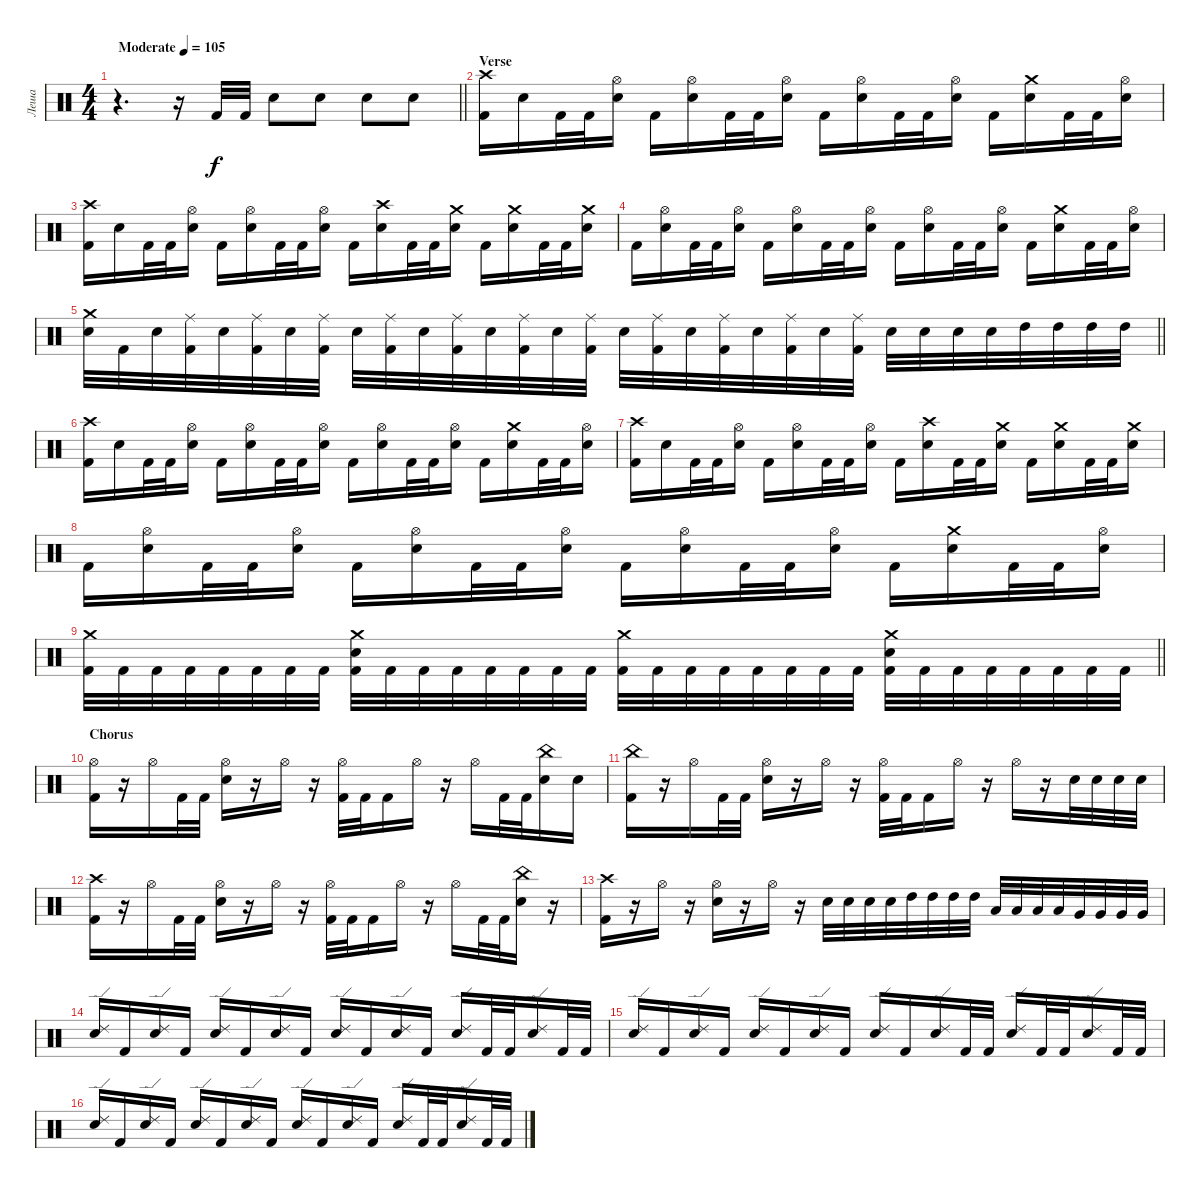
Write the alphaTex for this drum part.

\track ("Леша" "Леша") {instrument percussion}
\staff {score}
\articulation defaults
\ts (4 4)
\tempo (105 "Moderate")
\clef neutral
\barLineRight lightlight
\ks c
r.4{d dy f} r.16 "Kick (hit) 2".32 "Kick (hit) 2".32 "Electric Snare (hit)".8 "Electric Snare (hit)".8 "Electric Snare (hit)".8 "Electric Snare (hit)".8 |
\section ("" "Verse")
("Crash high (hit)" "Kick (hit) 2").16 "Electric Snare (hit)".16 "Kick (hit) 2".32 "Kick (hit) 2".32 ("Hi-Hat (open)" "Electric Snare (hit)").16 "Kick (hit) 2".16 ("Hi-Hat (open)" "Electric Snare (hit)").16 "Kick (hit) 2".32 "Kick (hit) 2".32 ("Hi-Hat (open)" "Electric Snare (hit)").16 "Kick (hit) 2".16 ("Hi-Hat (open)" "Electric Snare (hit)").16 "Kick (hit) 2".32 "Kick (hit) 2".32 ("Hi-Hat (open)" "Electric Snare (hit)").16 "Kick (hit) 2".16 ("Crash medium (hit)" "Electric Snare (hit)").16 "Kick (hit) 2".32 "Kick (hit) 2".32 ("Hi-Hat (open)" "Electric Snare (hit)").16 |
("Crash high (hit)" "Kick (hit) 2").16 "Electric Snare (hit)".16 "Kick (hit) 2".32 "Kick (hit) 2".32 ("Hi-Hat (open)" "Electric Snare (hit)").16 "Kick (hit) 2".16 ("Hi-Hat (open)" "Electric Snare (hit)").16 "Kick (hit) 2".32 "Kick (hit) 2".32 ("Hi-Hat (open)" "Electric Snare (hit)").16 "Kick (hit) 2".16 ("Crash high (hit)" "Electric Snare (hit)").16 "Kick (hit) 2".32 "Kick (hit) 2".32 ("Crash medium (hit)" "Electric Snare (hit)").16 "Kick (hit) 2".16 ("Crash medium (hit)" "Electric Snare (hit)").16 "Kick (hit) 2".32 "Kick (hit) 2".32 ("Crash medium (hit)" "Electric Snare (hit)").16 |
"Kick (hit) 2".16 ("Hi-Hat (open)" "Electric Snare (hit)").16 "Kick (hit) 2".32 "Kick (hit) 2".32 ("Hi-Hat (open)" "Electric Snare (hit)").16 "Kick (hit) 2".16 ("Hi-Hat (open)" "Electric Snare (hit)").16 "Kick (hit) 2".32 "Kick (hit) 2".32 ("Hi-Hat (open)" "Electric Snare (hit)").16 "Kick (hit) 2".16 ("Hi-Hat (open)" "Electric Snare (hit)").16 "Kick (hit) 2".32 "Kick (hit) 2".32 ("Hi-Hat (open)" "Electric Snare (hit)").16 "Kick (hit) 2".16 ("Crash medium (hit)" "Electric Snare (hit)").16 "Kick (hit) 2".32 "Kick (hit) 2".32 ("Hi-Hat (open)" "Electric Snare (hit)").16 |
\barLineRight lightlight
("Crash medium (hit)" "Electric Snare (hit)").32 "Kick (hit) 2".32 "Electric Snare (hit)".32 ("Ride (middle)" "Kick (hit) 2").32 "Electric Snare (hit)".32 ("Ride (middle)" "Kick (hit) 2").32 "Electric Snare (hit)".32 ("Ride (middle)" "Kick (hit) 2").32 "Electric Snare (hit)".32 ("Ride (middle)" "Kick (hit) 2").32 "Electric Snare (hit)".32 ("Ride (middle)" "Kick (hit) 2").32 "Electric Snare (hit)".32 ("Ride (middle)" "Kick (hit) 2").32 "Electric Snare (hit)".32 ("Ride (middle)" "Kick (hit) 2").32 "Electric Snare (hit)".32 ("Ride (middle)" "Kick (hit) 2").32 "Electric Snare (hit)".32 ("Ride (middle)" "Kick (hit) 2").32 "Electric Snare (hit)".32 ("Ride (middle)" "Kick (hit) 2").32 "Electric Snare (hit)".32 ("Ride (middle)" "Kick (hit) 2").32 "Electric Snare (hit)".32 "Electric Snare (hit)".32 "Electric Snare (hit)".32 "Electric Snare (hit)".32 "High Tom (hit)".32 "High Tom (hit)".32 "High Tom (hit)".32 "High Tom (hit)".32 |
("Crash high (hit)" "Kick (hit) 2").16 "Electric Snare (hit)".16 "Kick (hit) 2".32 "Kick (hit) 2".32 ("Hi-Hat (open)" "Electric Snare (hit)").16 "Kick (hit) 2".16 ("Hi-Hat (open)" "Electric Snare (hit)").16 "Kick (hit) 2".32 "Kick (hit) 2".32 ("Hi-Hat (open)" "Electric Snare (hit)").16 "Kick (hit) 2".16 ("Hi-Hat (open)" "Electric Snare (hit)").16 "Kick (hit) 2".32 "Kick (hit) 2".32 ("Hi-Hat (open)" "Electric Snare (hit)").16 "Kick (hit) 2".16 ("Crash medium (hit)" "Electric Snare (hit)").16 "Kick (hit) 2".32 "Kick (hit) 2".32 ("Hi-Hat (open)" "Electric Snare (hit)").16 |
("Crash high (hit)" "Kick (hit) 2").16 "Electric Snare (hit)".16 "Kick (hit) 2".32 "Kick (hit) 2".32 ("Hi-Hat (open)" "Electric Snare (hit)").16 "Kick (hit) 2".16 ("Hi-Hat (open)" "Electric Snare (hit)").16 "Kick (hit) 2".32 "Kick (hit) 2".32 ("Hi-Hat (open)" "Electric Snare (hit)").16 "Kick (hit) 2".16 ("Crash high (hit)" "Electric Snare (hit)").16 "Kick (hit) 2".32 "Kick (hit) 2".32 ("Crash medium (hit)" "Electric Snare (hit)").16 "Kick (hit) 2".16 ("Crash medium (hit)" "Electric Snare (hit)").16 "Kick (hit) 2".32 "Kick (hit) 2".32 ("Crash medium (hit)" "Electric Snare (hit)").16 |
"Kick (hit) 2".16 ("Hi-Hat (open)" "Electric Snare (hit)").16 "Kick (hit) 2".32 "Kick (hit) 2".32 ("Hi-Hat (open)" "Electric Snare (hit)").16 "Kick (hit) 2".16 ("Hi-Hat (open)" "Electric Snare (hit)").16 "Kick (hit) 2".32 "Kick (hit) 2".32 ("Hi-Hat (open)" "Electric Snare (hit)").16 "Kick (hit) 2".16 ("Hi-Hat (open)" "Electric Snare (hit)").16 "Kick (hit) 2".32 "Kick (hit) 2".32 ("Hi-Hat (open)" "Electric Snare (hit)").16 "Kick (hit) 2".16 ("Crash medium (hit)" "Electric Snare (hit)").16 "Kick (hit) 2".32 "Kick (hit) 2".32 ("Hi-Hat (open)" "Electric Snare (hit)").16 |
\barLineRight lightlight
("Crash medium (hit)" "Kick (hit) 2").32 "Kick (hit) 2".32 "Kick (hit) 2".32 "Kick (hit) 2".32 "Kick (hit) 2".32 "Kick (hit) 2".32 "Kick (hit) 2".32 "Kick (hit) 2".32 ("Crash medium (hit)" "Electric Snare (hit)" "Kick (hit) 2").32 "Kick (hit) 2".32 "Kick (hit) 2".32 "Kick (hit) 2".32 "Kick (hit) 2".32 "Kick (hit) 2".32 "Kick (hit) 2".32 "Kick (hit) 2".32 ("Crash medium (hit)" "Kick (hit) 2").32 "Kick (hit) 2".32 "Kick (hit) 2".32 "Kick (hit) 2".32 "Kick (hit) 2".32 "Kick (hit) 2".32 "Kick (hit) 2".32 "Kick (hit) 2".32 ("Crash medium (hit)" "Electric Snare (hit)" "Kick (hit) 2").32 "Kick (hit) 2".32 "Kick (hit) 2".32 "Kick (hit) 2".32 "Kick (hit) 2".32 "Kick (hit) 2".32 "Kick (hit) 2".32 "Kick (hit) 2".32 |
\section ("" "Chorus")
("Hi-Hat (open)" "Kick (hit) 2").16 r.16 "Hi-Hat (open)".16 "Kick (hit) 2".32 "Kick (hit) 2".32 ("Hi-Hat (open)" "Electric Snare (hit)").16 r.16 "Hi-Hat (open)".16 r.16 ("Hi-Hat (open)" "Kick (hit) 2").32 "Kick (hit) 2".32 "Kick (hit) 2".16 "Hi-Hat (open)".16 r.16 "Hi-Hat (open)".16 "Kick (hit) 2".32 "Kick (hit) 2".32 ("China (hit)" "Electric Snare (hit)").16 "Electric Snare (hit)".16 |
("China (hit)" "Kick (hit) 2").16 r.16 "Hi-Hat (open)".16 "Kick (hit) 2".32 "Kick (hit) 2".32 ("Hi-Hat (open)" "Electric Snare (hit)").16 r.16 "Hi-Hat (open)".16 r.16 ("Hi-Hat (open)" "Kick (hit) 2").32 "Kick (hit) 2".32 "Kick (hit) 2".16 "Hi-Hat (open)".16 r.16 "Hi-Hat (open)".16 r.16 "Electric Snare (hit)".32 "Electric Snare (hit)".32 "Electric Snare (hit)".32 "Electric Snare (hit)".32 |
("Crash high (hit)" "Kick (hit) 2").16 r.16 "Hi-Hat (open)".16 "Kick (hit) 2".32 "Kick (hit) 2".32 ("Hi-Hat (open)" "Electric Snare (hit)").16 r.16 "Hi-Hat (open)".16 r.16 ("Hi-Hat (open)" "Kick (hit) 2").32 "Kick (hit) 2".32 "Kick (hit) 2".16 "Hi-Hat (open)".16 r.16 "Hi-Hat (open)".16 "Kick (hit) 2".32 "Kick (hit) 2".32 ("China (hit)" "Electric Snare (hit)").16 r.16 |
("Crash high (hit)" "Kick (hit) 2").16 r.16 "Hi-Hat (open)".16 r.16 ("Hi-Hat (open)" "Electric Snare (hit)").16 r.16 "Hi-Hat (open)".16 r.16 "Electric Snare (hit)".32 "Electric Snare (hit)".32 "Electric Snare (hit)".32 "Electric Snare (hit)".32 "High Tom (hit)".32 "High Tom (hit)".32 "High Tom (hit)".32 "High Tom (hit)".32 "Low Tom (hit)".32 "Low Tom (hit)".32 "Low Tom (hit)".32 "Low Tom (hit)".32 "Very Low Tom (hit)".32 "Very Low Tom (hit)".32 "Very Low Tom (hit)".32 "Very Low Tom (hit)".32 |
("Ride (edge) 2" "Electric Snare (hit)").16 "Kick (hit) 2".16 ("Ride (edge) 2" "Electric Snare (hit)").16 "Kick (hit) 2".16 ("Ride (edge) 2" "Electric Snare (hit)").16 "Kick (hit) 2".16 ("Ride (edge) 2" "Electric Snare (hit)").16 "Kick (hit) 2".16 ("Ride (edge) 2" "Electric Snare (hit)").16 "Kick (hit) 2".16 ("Ride (edge) 2" "Electric Snare (hit)").16 "Kick (hit) 2".16 ("Ride (edge) 2" "Electric Snare (hit)").16 "Kick (hit) 2".32 "Kick (hit) 2".32 ("Ride (edge) 2" "Electric Snare (hit)").16 "Kick (hit) 2".32 "Kick (hit) 2".32 |
("Ride (edge) 2" "Electric Snare (hit)").16 "Kick (hit) 2".16 ("Ride (edge) 2" "Electric Snare (hit)").16 "Kick (hit) 2".16 ("Ride (edge) 2" "Electric Snare (hit)").16 "Kick (hit) 2".16 ("Ride (edge) 2" "Electric Snare (hit)").16 "Kick (hit) 2".16 ("Ride (edge) 2" "Electric Snare (hit)").16 "Kick (hit) 2".16 ("Ride (edge) 2" "Electric Snare (hit)").16 "Kick (hit) 2".32 "Kick (hit) 2".32 ("Ride (edge) 2" "Electric Snare (hit)").16 "Kick (hit) 2".32 "Kick (hit) 2".32 ("Ride (edge) 2" "Electric Snare (hit)").16 "Kick (hit) 2".32 "Kick (hit) 2".32 |
("Ride (edge) 2" "Electric Snare (hit)").16 "Kick (hit) 2".16 ("Ride (edge) 2" "Electric Snare (hit)").16 "Kick (hit) 2".16 ("Ride (edge) 2" "Electric Snare (hit)").16 "Kick (hit) 2".16 ("Ride (edge) 2" "Electric Snare (hit)").16 "Kick (hit) 2".16 ("Ride (edge) 2" "Electric Snare (hit)").16 "Kick (hit) 2".16 ("Ride (edge) 2" "Electric Snare (hit)").16 "Kick (hit) 2".16 ("Ride (edge) 2" "Electric Snare (hit)").16 "Kick (hit) 2".32 "Kick (hit) 2".32 ("Ride (edge) 2" "Electric Snare (hit)").16 "Kick (hit) 2".32 "Kick (hit) 2".32
